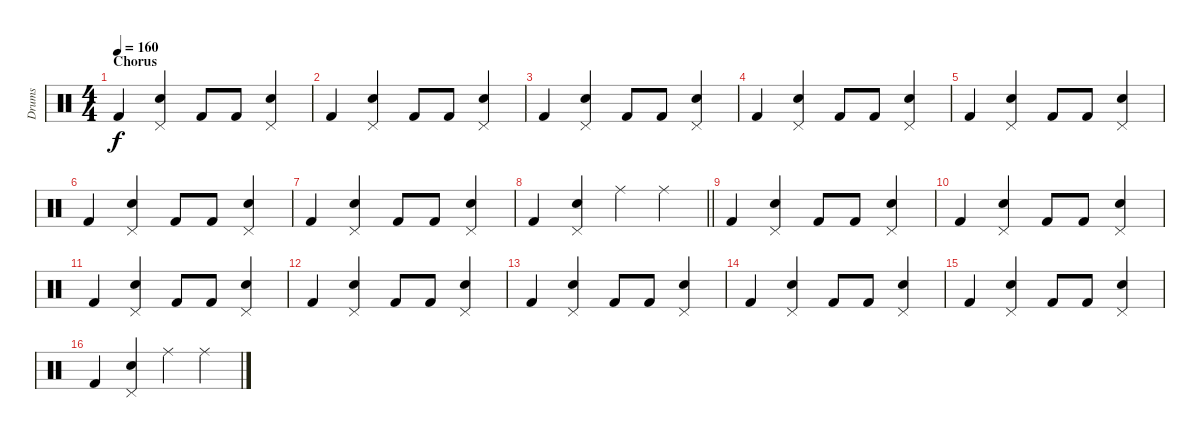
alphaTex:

\track ("Drums" "Drums") {instrument percussion}
\staff {score}
\articulation defaults
\ts (4 4)
\section ("" "Chorus")
\tempo 160
\clef neutral
\ks c "Kick (hit) 2".4{dy f}
("Pedal Hi-Hat (hit)" "Electric Snare (hit)").4 "Kick (hit) 2".8 "Kick (hit) 2".8 ("Pedal Hi-Hat (hit)" "Electric Snare (hit)").4 |
"Kick (hit) 2".4 ("Pedal Hi-Hat (hit)" "Electric Snare (hit)").4 "Kick (hit) 2".8 "Kick (hit) 2".8 ("Pedal Hi-Hat (hit)" "Electric Snare (hit)").4 |
"Kick (hit) 2".4 ("Pedal Hi-Hat (hit)" "Electric Snare (hit)").4 "Kick (hit) 2".8 "Kick (hit) 2".8 ("Pedal Hi-Hat (hit)" "Electric Snare (hit)").4 |
"Kick (hit) 2".4 ("Pedal Hi-Hat (hit)" "Electric Snare (hit)").4 "Kick (hit) 2".8 "Kick (hit) 2".8 ("Pedal Hi-Hat (hit)" "Electric Snare (hit)").4 |
"Kick (hit) 2".4 ("Pedal Hi-Hat (hit)" "Electric Snare (hit)").4 "Kick (hit) 2".8 "Kick (hit) 2".8 ("Pedal Hi-Hat (hit)" "Electric Snare (hit)").4 |
"Kick (hit) 2".4 ("Pedal Hi-Hat (hit)" "Electric Snare (hit)").4 "Kick (hit) 2".8 "Kick (hit) 2".8 ("Pedal Hi-Hat (hit)" "Electric Snare (hit)").4 |
"Kick (hit) 2".4 ("Pedal Hi-Hat (hit)" "Electric Snare (hit)").4 "Kick (hit) 2".8 "Kick (hit) 2".8 ("Pedal Hi-Hat (hit)" "Electric Snare (hit)").4 |
\barLineRight lightlight "Kick (hit) 2".4
("Pedal Hi-Hat (hit)" "Electric Snare (hit)").4 "Ride (middle)".4 "Ride (middle)".4 |
"Kick (hit) 2".4 ("Pedal Hi-Hat (hit)" "Electric Snare (hit)").4 "Kick (hit) 2".8 "Kick (hit) 2".8 ("Pedal Hi-Hat (hit)" "Electric Snare (hit)").4 |
"Kick (hit) 2".4 ("Pedal Hi-Hat (hit)" "Electric Snare (hit)").4 "Kick (hit) 2".8 "Kick (hit) 2".8 ("Pedal Hi-Hat (hit)" "Electric Snare (hit)").4 |
"Kick (hit) 2".4 ("Pedal Hi-Hat (hit)" "Electric Snare (hit)").4 "Kick (hit) 2".8 "Kick (hit) 2".8 ("Pedal Hi-Hat (hit)" "Electric Snare (hit)").4 |
"Kick (hit) 2".4 ("Pedal Hi-Hat (hit)" "Electric Snare (hit)").4 "Kick (hit) 2".8 "Kick (hit) 2".8 ("Pedal Hi-Hat (hit)" "Electric Snare (hit)").4 |
"Kick (hit) 2".4 ("Pedal Hi-Hat (hit)" "Electric Snare (hit)").4 "Kick (hit) 2".8 "Kick (hit) 2".8 ("Pedal Hi-Hat (hit)" "Electric Snare (hit)").4 |
"Kick (hit) 2".4 ("Pedal Hi-Hat (hit)" "Electric Snare (hit)").4 "Kick (hit) 2".8 "Kick (hit) 2".8 ("Pedal Hi-Hat (hit)" "Electric Snare (hit)").4 |
"Kick (hit) 2".4 ("Pedal Hi-Hat (hit)" "Electric Snare (hit)").4 "Kick (hit) 2".8 "Kick (hit) 2".8 ("Pedal Hi-Hat (hit)" "Electric Snare (hit)").4 |
"Kick (hit) 2".4 ("Pedal Hi-Hat (hit)" "Electric Snare (hit)").4 "Ride (middle)".4 "Ride (middle)".4
